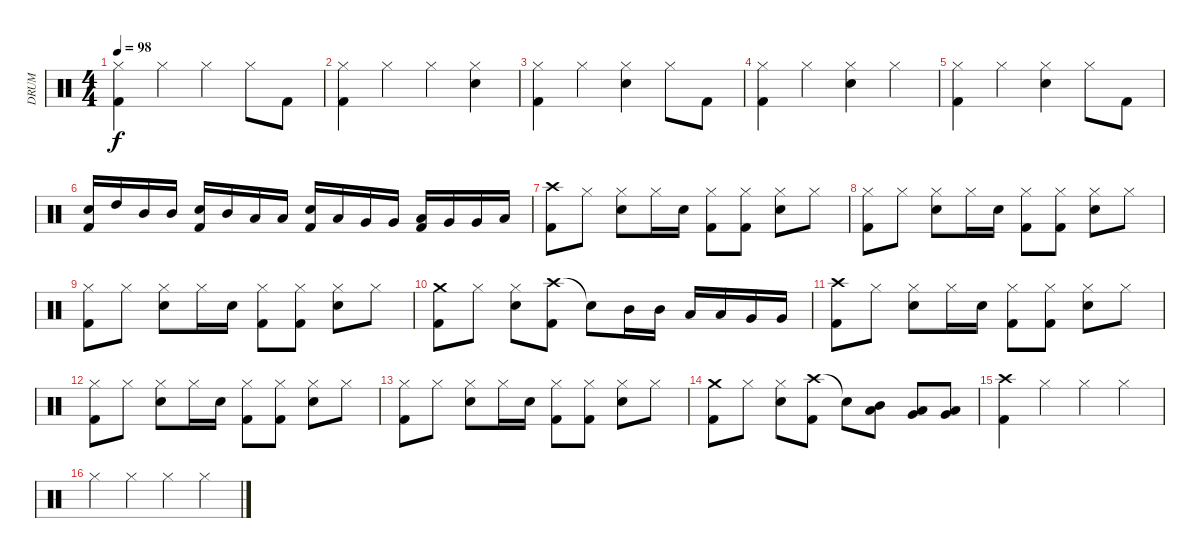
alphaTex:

\track ("DRUM" "DRUM") {instrument percussion}
\staff {score}
\articulation defaults
\ts (4 4)
\tempo 98
\clef neutral
\ks c
("Hi-Hat (closed)" "Kick (hit) 2").4{dy f} "Hi-Hat (closed)".4 "Hi-Hat (closed)".4 "Hi-Hat (closed)".8 "Kick (hit) 2".8 |
("Hi-Hat (closed)" "Kick (hit) 2").4 "Hi-Hat (closed)".4 "Hi-Hat (closed)".4 ("Snare (hit) 2" "Hi-Hat (closed)").4 |
("Hi-Hat (closed)" "Kick (hit) 2").4 "Hi-Hat (closed)".4 ("Snare (hit) 2" "Hi-Hat (closed)").4 "Hi-Hat (closed)".8 "Kick (hit) 2".8 |
("Hi-Hat (closed)" "Kick (hit) 2").4 "Hi-Hat (closed)".4 ("Snare (hit) 2" "Hi-Hat (closed)").4 "Hi-Hat (closed)".4 |
("Hi-Hat (closed)" "Kick (hit) 2").4 "Hi-Hat (closed)".4 ("Snare (hit) 2" "Hi-Hat (closed)").4 "Hi-Hat (closed)".8 "Kick (hit) 2".8 |
("Snare (hit) 2" "Kick (hit) 2").16 "High Tom (hit)".16 "Mid Tom (hit)".16 "Mid Tom (hit)".16 ("Snare (hit) 2" "Kick (hit) 2").16 "Mid Tom (hit)".16 "Low Tom (hit)".16 "Low Tom (hit)".16 ("Snare (hit) 2" "Kick (hit) 2").16 "Low Tom (hit)".16 "Very Low Tom (hit)".16 "Very Low Tom (hit)".16 ("Low Tom (hit)" "Kick (hit) 2").16 "Very Low Tom (hit)".16 "Very Low Tom (hit)".16 "Low Floor Tom (hit)".16 |
("Crash high (hit)" "Kick (hit) 2").8 "Hi-Hat (closed)".8 ("Snare (hit) 2" "Hi-Hat (closed)").8 "Hi-Hat (closed)".16 "Snare (hit) 2".16 ("Hi-Hat (closed)" "Kick (hit) 2").8 ("Hi-Hat (closed)" "Kick (hit) 2").8 ("Snare (hit) 2" "Hi-Hat (closed)").8 "Hi-Hat (closed)".8 |
("Hi-Hat (closed)" "Kick (hit) 2").8 "Hi-Hat (closed)".8 ("Snare (hit) 2" "Hi-Hat (closed)").8 "Hi-Hat (closed)".16 "Snare (hit) 2".16 ("Hi-Hat (closed)" "Kick (hit) 2").8 ("Hi-Hat (closed)" "Kick (hit) 2").8 ("Snare (hit) 2" "Hi-Hat (closed)").8 "Hi-Hat (closed)".8 |
("Hi-Hat (closed)" "Kick (hit) 2").8 "Hi-Hat (closed)".8 ("Snare (hit) 2" "Hi-Hat (closed)").8 "Hi-Hat (closed)".16 "Snare (hit) 2".16 ("Hi-Hat (closed)" "Kick (hit) 2").8 ("Hi-Hat (closed)" "Kick (hit) 2").8 ("Snare (hit) 2" "Hi-Hat (closed)").8 "Hi-Hat (closed)".8 |
("Crash medium (hit)" "Kick (hit) 2").8 "Hi-Hat (closed)".8 ("Snare (hit) 2" "Hi-Hat (closed)").8 ("Crash high (hit)" "Kick (hit) 2").8 "Snare (hit)"{t}.8 "Mid Tom (hit)".16 "Mid Tom (hit)".16 "Low Tom (hit)".16 "Low Tom (hit)".16 "Very Low Tom (hit)".16 "Very Low Tom (hit)".16 |
("Crash high (hit)" "Kick (hit) 2").8 "Hi-Hat (closed)".8 ("Snare (hit) 2" "Hi-Hat (closed)").8 "Hi-Hat (closed)".16 "Snare (hit) 2".16 ("Hi-Hat (closed)" "Kick (hit) 2").8 ("Hi-Hat (closed)" "Kick (hit) 2").8 ("Snare (hit) 2" "Hi-Hat (closed)").8 "Hi-Hat (closed)".8 |
("Hi-Hat (closed)" "Kick (hit) 2").8 "Hi-Hat (closed)".8 ("Snare (hit) 2" "Hi-Hat (closed)").8 "Hi-Hat (closed)".16 "Snare (hit) 2".16 ("Hi-Hat (closed)" "Kick (hit) 2").8 ("Hi-Hat (closed)" "Kick (hit) 2").8 ("Snare (hit) 2" "Hi-Hat (closed)").8 "Hi-Hat (closed)".8 |
("Hi-Hat (closed)" "Kick (hit) 2").8 "Hi-Hat (closed)".8 ("Snare (hit) 2" "Hi-Hat (closed)").8 "Hi-Hat (closed)".16 "Snare (hit) 2".16 ("Hi-Hat (closed)" "Kick (hit) 2").8 ("Hi-Hat (closed)" "Kick (hit) 2").8 ("Snare (hit) 2" "Hi-Hat (closed)").8 "Hi-Hat (closed)".8 |
("Crash medium (hit)" "Kick (hit) 2").8 "Hi-Hat (closed)".8 ("Snare (hit) 2" "Hi-Hat (closed)").8 ("Crash high (hit)" "Kick (hit) 2").8 "Snare (hit)"{t}.8 ("Mid Tom (hit)" "Low Tom (hit)").8 ("Low Tom (hit)" "Very Low Tom (hit)").8 ("Very Low Tom (hit)" "Low Floor Tom (hit)").8 |
("Crash high (hit)" "Kick (hit) 2").4 "Hi-Hat (closed)".4 "Hi-Hat (closed)".4 "Hi-Hat (closed)".4 |
"Hi-Hat (closed)".4 "Hi-Hat (closed)".4 "Hi-Hat (closed)".4 "Hi-Hat (closed)".4
